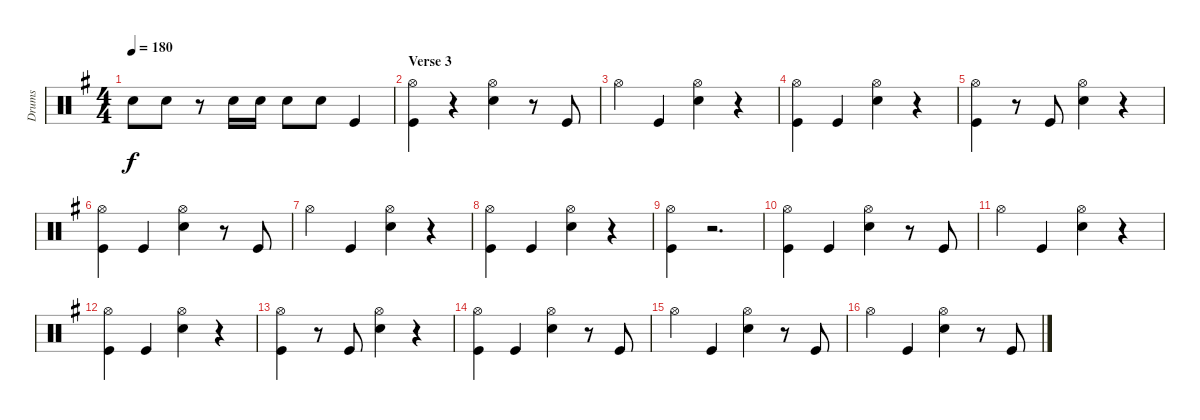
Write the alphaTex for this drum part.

\track ("Drums" "Drums") {instrument percussion}
\staff {score}
\articulation defaults
\ts (4 4)
\tempo 180
\clef neutral
\ks eminor "Snare (hit) 2".8{dy f} "Snare (hit) 2".8
r.8 "Snare (hit) 2".16 "Snare (hit) 2".16 "Snare (hit) 2".8 "Snare (hit) 2".8 "Kick (hit)".4 |
\section ("" "Verse 3")
("Hi-Hat (open)" "Kick (hit)").4 r.4 ("Hi-Hat (open)" "Snare (hit) 2").4 r.8 "Kick (hit)".8 |
"Hi-Hat (open)".4 "Kick (hit)".4 ("Hi-Hat (open)" "Snare (hit) 2").4 r.4 |
("Hi-Hat (open)" "Kick (hit)").4 "Kick (hit)".4 ("Hi-Hat (open)" "Snare (hit) 2").4 r.4 |
("Hi-Hat (open)" "Kick (hit)").4 r.8 "Kick (hit)".8 ("Hi-Hat (open)" "Snare (hit) 2").4 r.4 |
("Hi-Hat (open)" "Kick (hit)").4 "Kick (hit)".4 ("Hi-Hat (open)" "Snare (hit) 2").4 r.8 "Kick (hit)".8 |
"Hi-Hat (open)".4 "Kick (hit)".4 ("Hi-Hat (open)" "Snare (hit) 2").4 r.4 |
("Hi-Hat (open)" "Kick (hit)").4 "Kick (hit)".4 ("Hi-Hat (open)" "Snare (hit) 2").4 r.4 |
("Hi-Hat (open)" "Kick (hit)").4 r.2{d} |
("Hi-Hat (open)" "Kick (hit)").4 "Kick (hit)".4 ("Hi-Hat (open)" "Snare (hit) 2").4 r.8 "Kick (hit)".8 |
"Hi-Hat (open)".4 "Kick (hit)".4 ("Hi-Hat (open)" "Snare (hit) 2").4 r.4 |
("Hi-Hat (open)" "Kick (hit)").4 "Kick (hit)".4 ("Hi-Hat (open)" "Snare (hit) 2").4 r.4 |
("Hi-Hat (open)" "Kick (hit)").4 r.8 "Kick (hit)".8 ("Hi-Hat (open)" "Snare (hit) 2").4 r.4 |
("Hi-Hat (open)" "Kick (hit)").4 "Kick (hit)".4 ("Hi-Hat (open)" "Snare (hit) 2").4 r.8 "Kick (hit)".8 |
"Hi-Hat (open)".4 "Kick (hit)".4 ("Hi-Hat (open)" "Snare (hit) 2").4 r.8 "Kick (hit)".8 |
"Hi-Hat (open)".4 "Kick (hit)".4 ("Hi-Hat (open)" "Snare (hit) 2").4 r.8 "Kick (hit)".8
